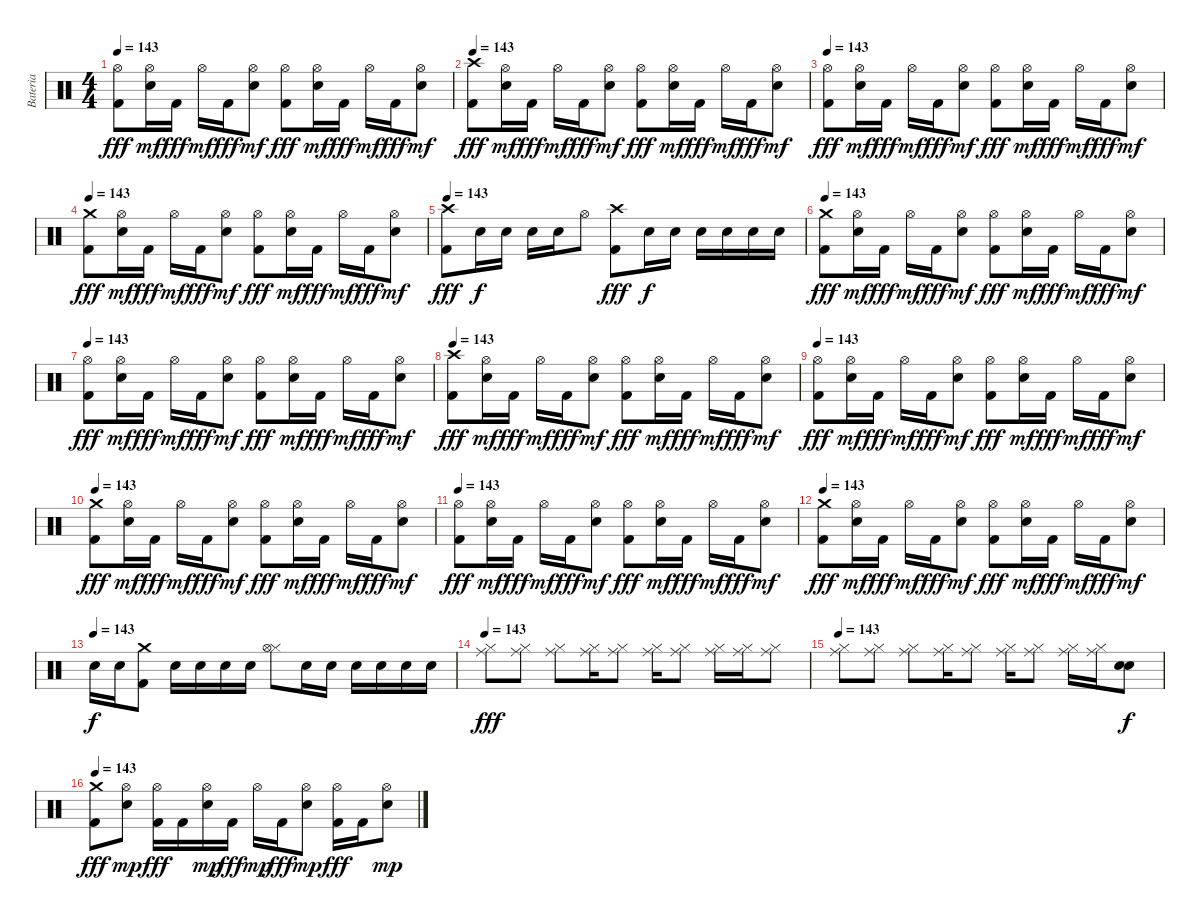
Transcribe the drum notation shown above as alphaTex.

\track ("Bateria" "Bateria") {instrument percussion}
\staff {score}
\articulation defaults
\ts (4 4)
\tempo 143
\clef neutral
\ks c
("Hi-Hat (open)" "Kick (hit) 2").8{dy fff} ("Hi-Hat (open)" "Electric Snare (hit)").16{dy mf} "Kick (hit) 2".16{dy fff} "Hi-Hat (open)".16{dy mf} "Kick (hit) 2".16{dy fff} ("Hi-Hat (open)" "Electric Snare (hit)").8{dy mf} ("Hi-Hat (open)" "Kick (hit) 2").8{dy fff} ("Hi-Hat (open)" "Electric Snare (hit)").16{dy mf} "Kick (hit) 2".16{dy fff} "Hi-Hat (open)".16{dy mf} "Kick (hit) 2".16{dy fff} ("Hi-Hat (open)" "Electric Snare (hit)").8{dy mf} |
\tempo 143
("Crash high (hit)" "Kick (hit) 2").8{dy fff} ("Hi-Hat (open)" "Electric Snare (hit)").16{dy mf} "Kick (hit) 2".16{dy fff} "Hi-Hat (open)".16{dy mf} "Kick (hit) 2".16{dy fff} ("Hi-Hat (open)" "Electric Snare (hit)").8{dy mf} ("Hi-Hat (open)" "Kick (hit) 2").8{dy fff} ("Hi-Hat (open)" "Electric Snare (hit)").16{dy mf} "Kick (hit) 2".16{dy fff} "Hi-Hat (open)".16{dy mf} "Kick (hit) 2".16{dy fff} ("Hi-Hat (open)" "Electric Snare (hit)").8{dy mf} |
\tempo 143
("Hi-Hat (open)" "Kick (hit) 2").8{dy fff} ("Hi-Hat (open)" "Electric Snare (hit)").16{dy mf} "Kick (hit) 2".16{dy fff} "Hi-Hat (open)".16{dy mf} "Kick (hit) 2".16{dy fff} ("Hi-Hat (open)" "Electric Snare (hit)").8{dy mf} ("Hi-Hat (open)" "Kick (hit) 2").8{dy fff} ("Hi-Hat (open)" "Electric Snare (hit)").16{dy mf} "Kick (hit) 2".16{dy fff} "Hi-Hat (open)".16{dy mf} "Kick (hit) 2".16{dy fff} ("Hi-Hat (open)" "Electric Snare (hit)").8{dy mf} |
\tempo 143
("Crash medium (hit)" "Kick (hit) 2").8{dy fff} ("Hi-Hat (open)" "Electric Snare (hit)").16{dy mf} "Kick (hit) 2".16{dy fff} "Hi-Hat (open)".16{dy mf} "Kick (hit) 2".16{dy fff} ("Hi-Hat (open)" "Electric Snare (hit)").8{dy mf} ("Hi-Hat (open)" "Kick (hit) 2").8{dy fff} ("Hi-Hat (open)" "Electric Snare (hit)").16{dy mf} "Kick (hit) 2".16{dy fff} "Hi-Hat (open)".16{dy mf} "Kick (hit) 2".16{dy fff} ("Hi-Hat (open)" "Electric Snare (hit)").8{dy mf} |
\tempo 143
("Crash high (hit)" "Kick (hit) 2").8{dy fff} "Electric Snare (hit)".16{dy f} "Electric Snare (hit)".16 "Electric Snare (hit)".16 "Electric Snare (hit)".16 "Hi-Hat (open)".8 ("Crash high (hit)" "Kick (hit) 2").8{dy fff} "Electric Snare (hit)".16{dy f} "Electric Snare (hit)".16 "Electric Snare (hit)".16 "Electric Snare (hit)".16 "Electric Snare (hit)".16 "Electric Snare (hit)".16 |
\tempo 143
("Crash medium (hit)" "Kick (hit) 2").8{dy fff} ("Hi-Hat (open)" "Electric Snare (hit)").16{dy mf} "Kick (hit) 2".16{dy fff} "Hi-Hat (open)".16{dy mf} "Kick (hit) 2".16{dy fff} ("Hi-Hat (open)" "Electric Snare (hit)").8{dy mf} ("Hi-Hat (open)" "Kick (hit) 2").8{dy fff} ("Hi-Hat (open)" "Electric Snare (hit)").16{dy mf} "Kick (hit) 2".16{dy fff} "Hi-Hat (open)".16{dy mf} "Kick (hit) 2".16{dy fff} ("Hi-Hat (open)" "Electric Snare (hit)").8{dy mf} |
\tempo 143
("Hi-Hat (open)" "Kick (hit) 2").8{dy fff} ("Hi-Hat (open)" "Electric Snare (hit)").16{dy mf} "Kick (hit) 2".16{dy fff} "Hi-Hat (open)".16{dy mf} "Kick (hit) 2".16{dy fff} ("Hi-Hat (open)" "Electric Snare (hit)").8{dy mf} ("Hi-Hat (open)" "Kick (hit) 2").8{dy fff} ("Hi-Hat (open)" "Electric Snare (hit)").16{dy mf} "Kick (hit) 2".16{dy fff} "Hi-Hat (open)".16{dy mf} "Kick (hit) 2".16{dy fff} ("Hi-Hat (open)" "Electric Snare (hit)").8{dy mf} |
\tempo 143
("Crash high (hit)" "Kick (hit) 2").8{dy fff} ("Hi-Hat (open)" "Electric Snare (hit)").16{dy mf} "Kick (hit) 2".16{dy fff} "Hi-Hat (open)".16{dy mf} "Kick (hit) 2".16{dy fff} ("Hi-Hat (open)" "Electric Snare (hit)").8{dy mf} ("Hi-Hat (open)" "Kick (hit) 2").8{dy fff} ("Hi-Hat (open)" "Electric Snare (hit)").16{dy mf} "Kick (hit) 2".16{dy fff} "Hi-Hat (open)".16{dy mf} "Kick (hit) 2".16{dy fff} ("Hi-Hat (open)" "Electric Snare (hit)").8{dy mf} |
\tempo 143
("Hi-Hat (open)" "Kick (hit) 2").8{dy fff} ("Hi-Hat (open)" "Electric Snare (hit)").16{dy mf} "Kick (hit) 2".16{dy fff} "Hi-Hat (open)".16{dy mf} "Kick (hit) 2".16{dy fff} ("Hi-Hat (open)" "Electric Snare (hit)").8{dy mf} ("Hi-Hat (open)" "Kick (hit) 2").8{dy fff} ("Hi-Hat (open)" "Electric Snare (hit)").16{dy mf} "Kick (hit) 2".16{dy fff} "Hi-Hat (open)".16{dy mf} "Kick (hit) 2".16{dy fff} ("Hi-Hat (open)" "Electric Snare (hit)").8{dy mf} |
\tempo 143
("Crash medium (hit)" "Kick (hit) 2").8{dy fff} ("Hi-Hat (open)" "Electric Snare (hit)").16{dy mf} "Kick (hit) 2".16{dy fff} "Hi-Hat (open)".16{dy mf} "Kick (hit) 2".16{dy fff} ("Hi-Hat (open)" "Electric Snare (hit)").8{dy mf} ("Hi-Hat (open)" "Kick (hit) 2").8{dy fff} ("Hi-Hat (open)" "Electric Snare (hit)").16{dy mf} "Kick (hit) 2".16{dy fff} "Hi-Hat (open)".16{dy mf} "Kick (hit) 2".16{dy fff} ("Hi-Hat (open)" "Electric Snare (hit)").8{dy mf} |
\tempo 143
("Hi-Hat (open)" "Kick (hit) 2").8{dy fff} ("Hi-Hat (open)" "Electric Snare (hit)").16{dy mf} "Kick (hit) 2".16{dy fff} "Hi-Hat (open)".16{dy mf} "Kick (hit) 2".16{dy fff} ("Hi-Hat (open)" "Electric Snare (hit)").8{dy mf} ("Hi-Hat (open)" "Kick (hit) 2").8{dy fff} ("Hi-Hat (open)" "Electric Snare (hit)").16{dy mf} "Kick (hit) 2".16{dy fff} "Hi-Hat (open)".16{dy mf} "Kick (hit) 2".16{dy fff} ("Hi-Hat (open)" "Electric Snare (hit)").8{dy mf} |
\tempo 143
("Crash medium (hit)" "Kick (hit) 2").8{dy fff} ("Hi-Hat (open)" "Electric Snare (hit)").16{dy mf} "Kick (hit) 2".16{dy fff} "Hi-Hat (open)".16{dy mf} "Kick (hit) 2".16{dy fff} ("Hi-Hat (open)" "Electric Snare (hit)").8{dy mf} ("Hi-Hat (open)" "Kick (hit) 2").8{dy fff} ("Hi-Hat (open)" "Electric Snare (hit)").16{dy mf} "Kick (hit) 2".16{dy fff} "Hi-Hat (open)".16{dy mf} "Kick (hit) 2".16{dy fff} ("Hi-Hat (open)" "Electric Snare (hit)").8{dy mf} |
\tempo (143)
"Electric Snare (hit)".16{dy f} "Electric Snare (hit)".16 ("Crash medium (hit)" "Kick (hit) 2").8 "Electric Snare (hit)".16 "Electric Snare (hit)".16 "Electric Snare (hit)".16 "Electric Snare (hit)".16 ("Hi-Hat (closed)" "Hi-Hat (open)").8 "Electric Snare (hit)".16 "Electric Snare (hit)".16 "Electric Snare (hit)".16 "Electric Snare (hit)".16 "Electric Snare (hit)".16 "Electric Snare (hit)".16 |
\tempo 143
("Hi-Hat (closed)" "Ride (middle)").8{dy fff} ("Hi-Hat (closed)" "Ride (middle)").8 ("Hi-Hat (closed)" "Ride (middle)").8 ("Hi-Hat (closed)" "Ride (middle)").16 ("Hi-Hat (closed)" "Ride (middle)").8 ("Hi-Hat (closed)" "Ride (middle)").16 ("Hi-Hat (closed)" "Ride (middle)").8 ("Hi-Hat (closed)" "Ride (middle)").16 ("Hi-Hat (closed)" "Ride (middle)").16 ("Hi-Hat (closed)" "Ride (middle)").8 |
\tempo 143
("Hi-Hat (closed)" "Ride (middle)").8 ("Hi-Hat (closed)" "Ride (middle)").8 ("Hi-Hat (closed)" "Ride (middle)").8 ("Hi-Hat (closed)" "Ride (middle)").16 ("Hi-Hat (closed)" "Ride (middle)").8 ("Hi-Hat (closed)" "Ride (middle)").16 ("Hi-Hat (closed)" "Ride (middle)").8 ("Hi-Hat (closed)" "Ride (middle)").16 ("Hi-Hat (closed)" "Ride (middle)").16 ("Electric Snare (hit)" "Electric Snare (hit)").8{dy f} |
\tempo 143
("Crash medium (hit)" "Kick (hit) 2").8{dy fff} ("Hi-Hat (open)" "Electric Snare (hit)").8{dy mp} ("Hi-Hat (open)" "Kick (hit) 2").16{dy fff} "Kick (hit) 2".16 ("Hi-Hat (open)" "Electric Snare (hit)").16{dy mp} "Kick (hit) 2".16{dy fff} "Hi-Hat (open)".16{dy mp} "Kick (hit) 2".16{dy fff} ("Hi-Hat (open)" "Electric Snare (hit)").8{dy mp} ("Hi-Hat (open)" "Kick (hit) 2").16{dy fff} "Kick (hit) 2".16 ("Hi-Hat (open)" "Electric Snare (hit)").8{dy mp}
